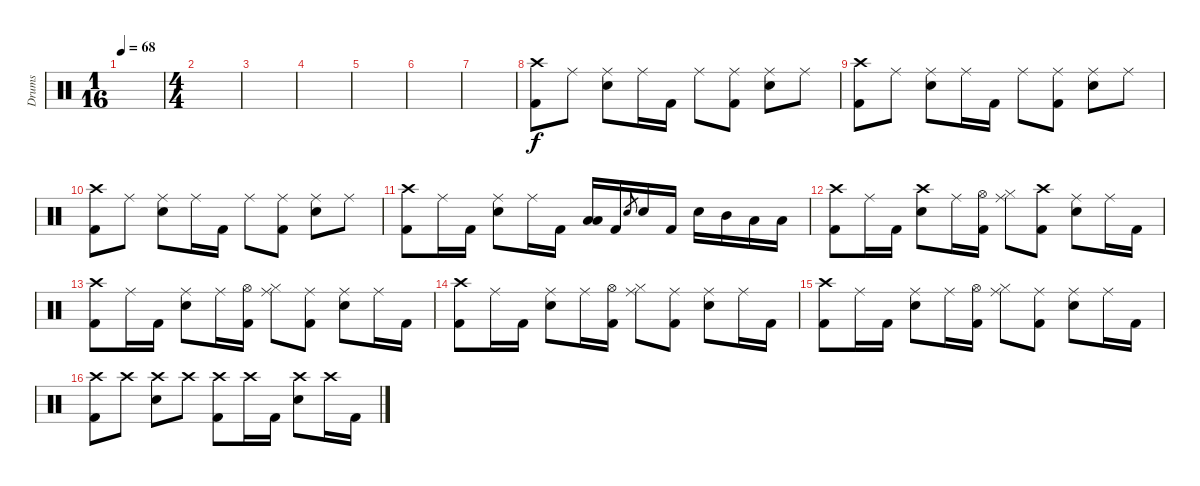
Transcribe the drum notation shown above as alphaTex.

\track ("Drums" "Drums") {instrument percussion}
\staff {score}
\articulation defaults
\ts (1 16)
\tempo 68
\clef neutral
\ks c
|
\ts (4 4)
|
|
|
|
|
|
("Crash high (hit)" "Kick (hit) 2").8 "Ride (middle)".8 ("Ride (middle)" "Electric Snare (hit)").8 "Ride (middle)".16 "Kick (hit) 2".16 "Ride (middle)".8 ("Ride (middle)" "Kick (hit) 2").8 ("Ride (middle)" "Electric Snare (hit)").8 "Ride (middle)".8 |
("Crash high (hit)" "Kick (hit) 2").8 "Ride (middle)".8 ("Ride (middle)" "Electric Snare (hit)").8 "Ride (middle)".16 "Kick (hit) 2".16 "Ride (middle)".8 ("Ride (middle)" "Kick (hit) 2").8 ("Ride (middle)" "Electric Snare (hit)").8 "Ride (middle)".8 |
("Crash high (hit)" "Kick (hit) 2").8 "Ride (middle)".8 ("Ride (middle)" "Electric Snare (hit)").8 "Ride (middle)".16 "Kick (hit) 2".16 "Ride (middle)".8 ("Ride (middle)" "Kick (hit) 2").8 ("Ride (middle)" "Electric Snare (hit)").8 "Ride (middle)".8 |
("Crash high (hit)" "Kick (hit) 2").8 "Ride (middle)".16 "Kick (hit) 2".16 ("Ride (middle)" "Electric Snare (hit)").8 "Ride (middle)".16 "Kick (hit) 2".16 ("Low Tom (hit)" "Low Floor Tom (hit)").16 "Kick (hit) 2".16 "Electric Snare (hit)".8{gr} "Electric Snare (hit)".16 "Kick (hit) 2".16 "Electric Snare (hit)".16 "Mid Tom (hit)".16 "Low Tom (hit)".16 "Low Floor Tom (hit)".16 |
("Crash high (hit)" "Kick (hit) 2").8 "Ride (middle)".16 "Kick (hit) 2".16 ("Crash high (hit)" "Electric Snare (hit)").8 "Ride (middle)".16 ("Hi-Hat (open)" "Kick (hit) 2").16 ("Ride (middle)" "Hi-Hat (closed)").8 ("Crash high (hit)" "Kick (hit) 2").8 ("Ride (middle)" "Electric Snare (hit)").8 "Ride (middle)".16 "Kick (hit) 2".16 |
("Crash high (hit)" "Kick (hit) 2").8 "Ride (middle)".16 "Kick (hit) 2".16 ("Ride (middle)" "Electric Snare (hit)").8 "Ride (middle)".16 ("Hi-Hat (open)" "Kick (hit) 2").16 ("Ride (middle)" "Hi-Hat (closed)").8 ("Ride (middle)" "Kick (hit) 2").8 ("Ride (middle)" "Electric Snare (hit)").8 "Ride (middle)".16 "Kick (hit) 2".16 |
("Crash high (hit)" "Kick (hit) 2").8 "Ride (middle)".16 "Kick (hit) 2".16 ("Ride (middle)" "Electric Snare (hit)").8 "Ride (middle)".16 ("Hi-Hat (open)" "Kick (hit) 2").16 ("Ride (middle)" "Hi-Hat (closed)").8 ("Ride (middle)" "Kick (hit) 2").8 ("Ride (middle)" "Electric Snare (hit)").8 "Ride (middle)".16 "Kick (hit) 2".16 |
("Crash high (hit)" "Kick (hit) 2").8 "Ride (middle)".16 "Kick (hit) 2".16 ("Ride (middle)" "Electric Snare (hit)").8 "Ride (middle)".16 ("Hi-Hat (open)" "Kick (hit) 2").16 ("Ride (middle)" "Hi-Hat (closed)").8 ("Ride (middle)" "Kick (hit) 2").8 ("Ride (middle)" "Electric Snare (hit)").8 "Ride (middle)".16 "Kick (hit) 2".16 |
("Crash high (hit)" "Kick (hit) 2").8 "Crash high (hit)".8 ("Crash high (hit)" "Electric Snare (hit)").8 "Crash high (hit)".8 ("Crash high (hit)" "Kick (hit) 2").8 "Crash high (hit)".16 "Kick (hit) 2".16 ("Crash high (hit)" "Electric Snare (hit)").8 "Crash high (hit)".16 "Kick (hit) 2".16
